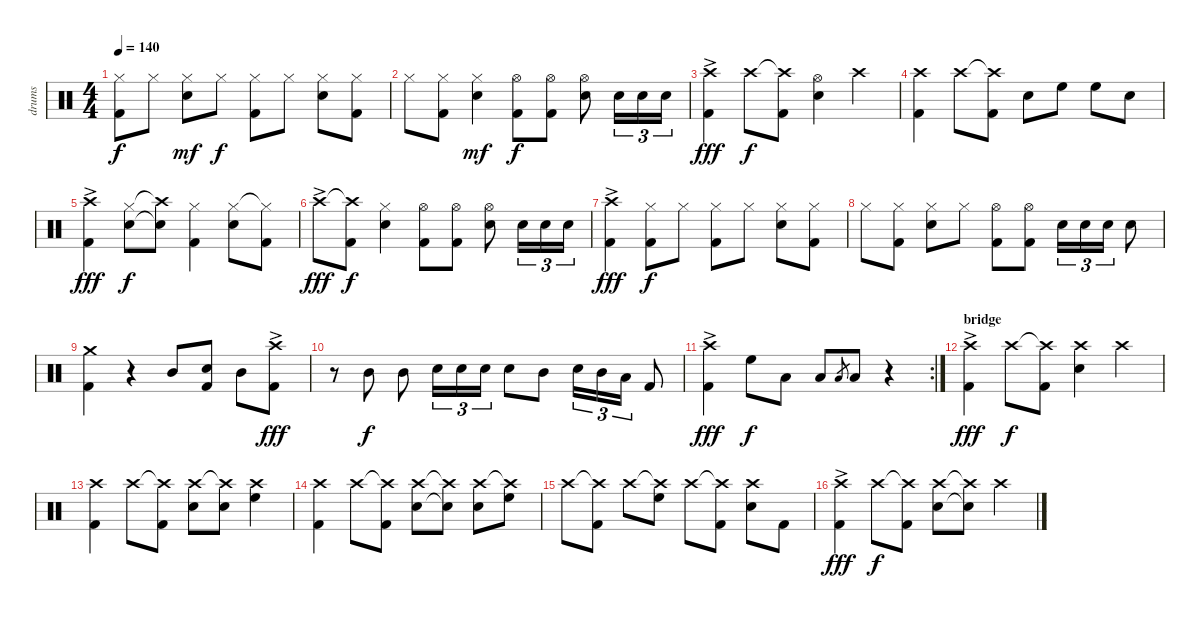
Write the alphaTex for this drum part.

\track ("drums" "drums") {instrument percussion}
\staff {score}
\articulation defaults
\ts (4 4)
\tempo 140
\clef neutral
\ks c
("Kick (hit) 2" "Hi-Hat (closed)").8{dy f} "Hi-Hat (closed)".8 ("Hi-Hat (closed)" "Snare (hit) 2").8{dy mf} "Hi-Hat (closed)".8{dy f} ("Hi-Hat (closed)" "Kick (hit) 2").8 "Hi-Hat (closed)".8 ("Hi-Hat (closed)" "Snare (hit) 2").8 ("Hi-Hat (closed)" "Kick (hit) 2").8 |
"Hi-Hat (closed)".8 ("Hi-Hat (closed)" "Kick (hit) 2").8 ("Hi-Hat (closed)" "Snare (hit) 2").4{dy mf} ("Hi-Hat (open)" "Kick (hit) 2").8{dy f} ("Hi-Hat (open)" "Kick (hit) 2").8 ("Hi-Hat (open)" "Snare (hit) 2").8 "Snare (hit) 2".16{tu (3 2)} "Snare (hit) 2".16{tu (3 2)} "Snare (hit) 2".16{tu (3 2)} |
("Crash high (hit)"{ac} "Kick (hit) 2").4{dy fff} "Crash high (hit)".8{dy f} ("Crash high (hit)"{t} "Kick (hit) 2").8 ("Hi-Hat (open)" "Snare (hit) 2").4 "Crash high (hit)".4 |
("Crash high (hit)" "Kick (hit) 2").4 "Crash high (hit)".8 ("Crash high (hit)"{t} "Kick (hit) 2").8 "Snare (hit) 2".8 "High Floor Tom (hit)".8 "High Floor Tom (hit)".8 "Snare (hit) 2".8 |
("Crash high (hit)"{ac} "Kick (hit) 2").4{dy fff} ("Hi-Hat (closed)" "Snare (hit) 2").8{dy f} ("Crash high (hit)"{t} "Snare (hit) 2"{t}).8 ("Hi-Hat (closed)" "Kick (hit) 2").4 ("Hi-Hat (closed)" "Snare (hit) 2").8 ("Hi-Hat (closed)"{t} "Kick (hit) 2").8 |
"Crash high (hit)"{ac}.8{dy fff} ("Crash high (hit)"{t} "Kick (hit) 2").8{dy f} ("Hi-Hat (closed)" "Snare (hit) 2").4 ("Hi-Hat (open)" "Kick (hit) 2").8 ("Hi-Hat (open)" "Kick (hit) 2").8 ("Hi-Hat (open)" "Snare (hit) 2").8 "Snare (hit) 2".16{tu (3 2)} "Snare (hit) 2".16{tu (3 2)} "Snare (hit) 2".16{tu (3 2)} |
("Crash high (hit)"{ac} "Kick (hit) 2").4{dy fff} ("Hi-Hat (closed)" "Kick (hit) 2").8{dy f} "Hi-Hat (closed)".8 ("Hi-Hat (closed)" "Kick (hit) 2").8 "Hi-Hat (closed)".8 ("Hi-Hat (closed)" "Snare (hit) 2").8 ("Hi-Hat (closed)" "Kick (hit) 2").8 |
"Hi-Hat (closed)".8 ("Hi-Hat (closed)" "Kick (hit) 2").8 ("Hi-Hat (closed)" "Snare (hit) 2").8 "Hi-Hat (closed)".8 ("Hi-Hat (open)" "Kick (hit) 2").8 ("Hi-Hat (open)" "Kick (hit) 2").8 "Snare (hit) 2".16{tu (3 2)} "Snare (hit) 2".16{tu (3 2)} "Snare (hit) 2".16{tu (3 2)} "Snare (hit) 2".8 |
("Crash medium (hit)" "Kick (hit) 2").4 r.4 "Mid Tom (hit)".8 ("Snare (hit) 2" "Kick (hit) 2").8 "Mid Tom (hit)".8 ("Crash high (hit)"{ac} "Kick (hit) 2").8{dy fff} |
r.8 "Mid Tom (hit)".8{dy f} "Mid Tom (hit)".8 "Snare (hit) 2".16{tu (3 2)} "Snare (hit) 2".16{tu (3 2)} "Snare (hit) 2".16{tu (3 2)} "Snare (hit) 2".8 "Mid Tom (hit)".8 "Snare (hit) 2".16{tu (3 2)} "Mid Tom (hit)".16{tu (3 2)} "Low Tom (hit)".16{tu (3 2)} "Kick (hit) 2".8 |
\rc 2
("Crash high (hit)"{ac} "Kick (hit) 2").4{dy fff} "High Floor Tom (hit)".8{dy f} "Low Tom (hit)".8 "Low Tom (hit)".8 "Low Tom (hit)".8{gr} "Low Tom (hit)".8 r.4 |
\section ("" "bridge")
("Crash high (hit)"{ac} "Kick (hit) 2").4{dy fff} "Crash high (hit)".8{dy f} ("Crash high (hit)"{t} "Kick (hit) 2").8 ("Crash high (hit)" "Snare (hit) 2").4 "Crash high (hit)".4 |
("Crash high (hit)" "Kick (hit) 2").4 "Crash high (hit)".8 ("Crash high (hit)"{t} "Kick (hit) 2").8 ("Crash high (hit)" "Snare (hit) 2").8 ("Crash high (hit)"{t} "Snare (hit) 2").8 ("Crash high (hit)" "High Floor Tom (hit)").4 |
("Crash high (hit)" "Kick (hit) 2").4 "Crash high (hit)".8 ("Crash high (hit)"{t} "Kick (hit) 2").8 ("Crash high (hit)" "Snare (hit) 2").8 ("Crash high (hit)"{t} "Snare (hit) 2"{t}).8 ("Crash high (hit)" "Snare (hit) 2").8 ("Crash high (hit)"{t} "High Floor Tom (hit)").8 |
"Crash high (hit)".8 ("Crash high (hit)"{t} "Kick (hit) 2").8 "Crash high (hit)".8 ("Crash high (hit)"{t} "High Floor Tom (hit)").8 "Crash high (hit)".8 ("Crash high (hit)"{t} "Kick (hit) 2").8 ("Crash high (hit)" "Snare (hit) 2").8 "Kick (hit) 2".8 |
("Crash high (hit)"{ac} "Kick (hit) 2").4{dy fff} "Crash high (hit)".8{dy f} ("Crash high (hit)"{t} "Kick (hit) 2").8 ("Crash high (hit)" "Snare (hit) 2").8 ("Crash high (hit)"{t} "Snare (hit) 2"{t}).8 "Crash high (hit)".4
